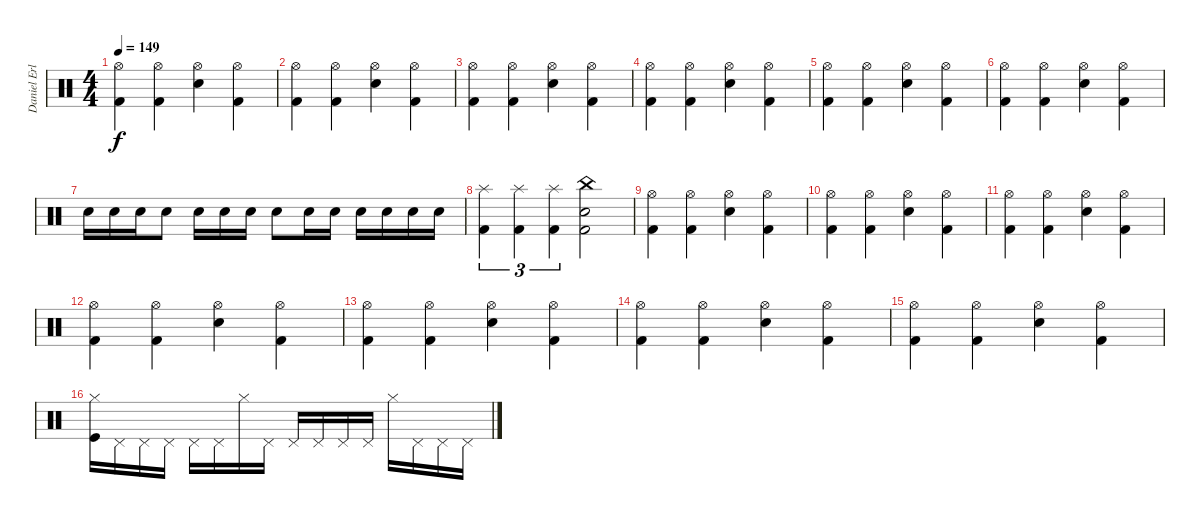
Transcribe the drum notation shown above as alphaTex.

\track ("Daniel Erlandsson" "Daniel Erl") {instrument percussion}
\staff {score}
\articulation defaults
\ts (4 4)
\tempo 149
\clef neutral
\ks c
("Kick (hit) 2" "Hi-Hat (open)").4{dy f} ("Kick (hit) 2" "Hi-Hat (open)").4 ("Electric Snare (hit)" "Hi-Hat (open)").4 ("Kick (hit) 2" "Hi-Hat (open)").4 |
("Kick (hit) 2" "Hi-Hat (open)").4 ("Kick (hit) 2" "Hi-Hat (open)").4 ("Electric Snare (hit)" "Hi-Hat (open)").4 ("Kick (hit) 2" "Hi-Hat (open)").4 |
("Kick (hit) 2" "Hi-Hat (open)").4 ("Kick (hit) 2" "Hi-Hat (open)").4 ("Electric Snare (hit)" "Hi-Hat (open)").4 ("Kick (hit) 2" "Hi-Hat (open)").4 |
("Kick (hit) 2" "Hi-Hat (open)").4 ("Kick (hit) 2" "Hi-Hat (open)").4 ("Electric Snare (hit)" "Hi-Hat (open)").4 ("Kick (hit) 2" "Hi-Hat (open)").4 |
("Kick (hit) 2" "Hi-Hat (open)").4 ("Kick (hit) 2" "Hi-Hat (open)").4 ("Electric Snare (hit)" "Hi-Hat (open)").4 ("Kick (hit) 2" "Hi-Hat (open)").4 |
("Kick (hit) 2" "Hi-Hat (open)").4 ("Kick (hit) 2" "Hi-Hat (open)").4 ("Electric Snare (hit)" "Hi-Hat (open)").4 ("Kick (hit) 2" "Hi-Hat (open)").4 |
"Electric Snare (hit)".16 "Electric Snare (hit)".16 "Electric Snare (hit)".16 "Electric Snare (hit)".8 "Electric Snare (hit)".16 "Electric Snare (hit)".16 "Electric Snare (hit)".16 "Electric Snare (hit)".8 "Electric Snare (hit)".16 "Electric Snare (hit)".16 "Electric Snare (hit)".16 "Electric Snare (hit)".16 "Electric Snare (hit)".16 "Electric Snare (hit)".16 |
("Kick (hit) 2" "Splash (hit)").4{tu (3 2)} ("Kick (hit) 2" "Splash (hit)").4{tu (3 2)} ("Kick (hit) 2" "Splash (hit)").4{tu (3 2)} ("Kick (hit) 2" "Electric Snare (hit)" "China (hit)").2 |
("Kick (hit) 2" "Hi-Hat (open)").4 ("Kick (hit) 2" "Hi-Hat (open)").4 ("Electric Snare (hit)" "Hi-Hat (open)").4 ("Kick (hit) 2" "Hi-Hat (open)").4 |
("Kick (hit) 2" "Hi-Hat (open)").4 ("Kick (hit) 2" "Hi-Hat (open)").4 ("Electric Snare (hit)" "Hi-Hat (open)").4 ("Kick (hit) 2" "Hi-Hat (open)").4 |
("Kick (hit) 2" "Hi-Hat (open)").4 ("Kick (hit) 2" "Hi-Hat (open)").4 ("Electric Snare (hit)" "Hi-Hat (open)").4 ("Kick (hit) 2" "Hi-Hat (open)").4 |
("Kick (hit) 2" "Hi-Hat (open)").4 ("Kick (hit) 2" "Hi-Hat (open)").4 ("Electric Snare (hit)" "Hi-Hat (open)").4 ("Kick (hit) 2" "Hi-Hat (open)").4 |
("Kick (hit) 2" "Hi-Hat (open)").4 ("Kick (hit) 2" "Hi-Hat (open)").4 ("Electric Snare (hit)" "Hi-Hat (open)").4 ("Kick (hit) 2" "Hi-Hat (open)").4 |
("Kick (hit) 2" "Hi-Hat (open)").4 ("Kick (hit) 2" "Hi-Hat (open)").4 ("Electric Snare (hit)" "Hi-Hat (open)").4 ("Kick (hit) 2" "Hi-Hat (open)").4 |
("Kick (hit) 2" "Hi-Hat (open)").4 ("Kick (hit) 2" "Hi-Hat (open)").4 ("Electric Snare (hit)" "Hi-Hat (open)").4 ("Kick (hit) 2" "Hi-Hat (open)").4 |
("Kick (hit)" "Hi-Hat (closed)").16 "Pedal Hi-Hat (hit)".16 "Pedal Hi-Hat (hit)".16 "Pedal Hi-Hat (hit)".16 "Pedal Hi-Hat (hit)".16 "Pedal Hi-Hat (hit)".16 "Hi-Hat (closed)".16 "Pedal Hi-Hat (hit)".16 "Pedal Hi-Hat (hit)".16 "Pedal Hi-Hat (hit)".16 "Pedal Hi-Hat (hit)".16 "Pedal Hi-Hat (hit)".16 "Hi-Hat (closed)".16 "Pedal Hi-Hat (hit)".16 "Pedal Hi-Hat (hit)".16 "Pedal Hi-Hat (hit)".16
